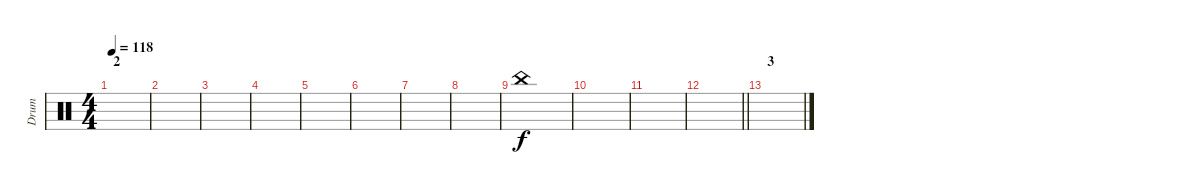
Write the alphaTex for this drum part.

\track ("Drum" "Drum") {instrument percussion}
\staff {score}
\articulation defaults
\ts (4 4)
\section ("" "2")
\tempo 118
\clef neutral
\ks c
|
|
|
|
|
|
|
|
"China (hit)".1 |
|
|
\barLineRight lightlight
|
\section ("" "3")
